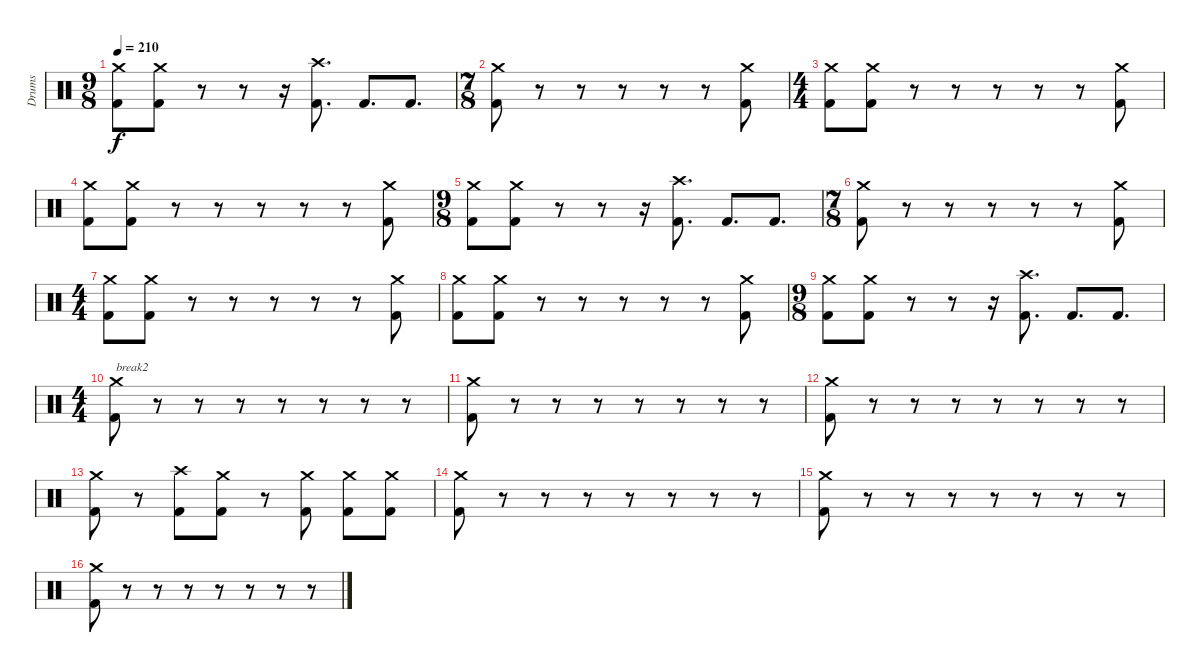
\track ("Drums" "Drums") {instrument percussion}
\staff {score}
\articulation defaults
\ts (9 8)
\tempo 210
\clef neutral
\ks c
("Kick (hit) 2" "Crash medium (hit)").8{dy f} ("Kick (hit) 2" "Crash medium (hit)").8 r.8 r.8 r.16 ("Kick (hit) 2" "Crash high (hit)").8{d} "Kick (hit) 2".8{d} "Kick (hit) 2".8{d} |
\ts (7 8)
("Kick (hit) 2" "Crash medium (hit)").8 r.8 r.8 r.8 r.8 r.8 ("Kick (hit) 2" "Crash medium (hit)").8 |
\ts (4 4)
("Kick (hit) 2" "Crash medium (hit)").8 ("Kick (hit) 2" "Crash medium (hit)").8 r.8 r.8 r.8 r.8 r.8 ("Kick (hit) 2" "Crash medium (hit)").8 |
("Kick (hit) 2" "Crash medium (hit)").8 ("Kick (hit) 2" "Crash medium (hit)").8 r.8 r.8 r.8 r.8 r.8 ("Kick (hit) 2" "Crash medium (hit)").8 |
\ts (9 8)
("Kick (hit) 2" "Crash medium (hit)").8 ("Kick (hit) 2" "Crash medium (hit)").8 r.8 r.8 r.16 ("Kick (hit) 2" "Crash high (hit)").8{d} "Kick (hit) 2".8{d} "Kick (hit) 2".8{d} |
\ts (7 8)
("Kick (hit) 2" "Crash medium (hit)").8 r.8 r.8 r.8 r.8 r.8 ("Kick (hit) 2" "Crash medium (hit)").8 |
\ts (4 4)
("Kick (hit) 2" "Crash medium (hit)").8 ("Kick (hit) 2" "Crash medium (hit)").8 r.8 r.8 r.8 r.8 r.8 ("Kick (hit) 2" "Crash medium (hit)").8 |
("Kick (hit) 2" "Crash medium (hit)").8 ("Kick (hit) 2" "Crash medium (hit)").8 r.8 r.8 r.8 r.8 r.8 ("Kick (hit) 2" "Crash medium (hit)").8 |
\ts (9 8)
("Kick (hit) 2" "Crash medium (hit)").8 ("Kick (hit) 2" "Crash medium (hit)").8 r.8 r.8 r.16 ("Kick (hit) 2" "Crash high (hit)").8{d} "Kick (hit) 2".8{d} "Kick (hit) 2".8{d} |
\ts (4 4)
("Kick (hit) 2" "Crash medium (hit)").8{txt "break2"} r.8 r.8 r.8 r.8 r.8 r.8 r.8 |
("Kick (hit) 2" "Crash medium (hit)").8 r.8 r.8 r.8 r.8 r.8 r.8 r.8 |
("Crash medium (hit)" "Kick (hit) 2").8 r.8 r.8 r.8 r.8 r.8 r.8 r.8 |
("Kick (hit) 2" "Crash medium (hit)").8 r.8 ("Kick (hit) 2" "Crash high (hit)").8 ("Kick (hit) 2" "Crash medium (hit)").8 r.8 ("Kick (hit) 2" "Crash medium (hit)").8 ("Kick (hit) 2" "Crash medium (hit)").8 ("Kick (hit) 2" "Crash medium (hit)").8 |
("Kick (hit) 2" "Crash medium (hit)").8 r.8 r.8 r.8 r.8 r.8 r.8 r.8 |
("Kick (hit) 2" "Crash medium (hit)").8 r.8 r.8 r.8 r.8 r.8 r.8 r.8 |
("Crash medium (hit)" "Kick (hit) 2").8 r.8 r.8 r.8 r.8 r.8 r.8 r.8
